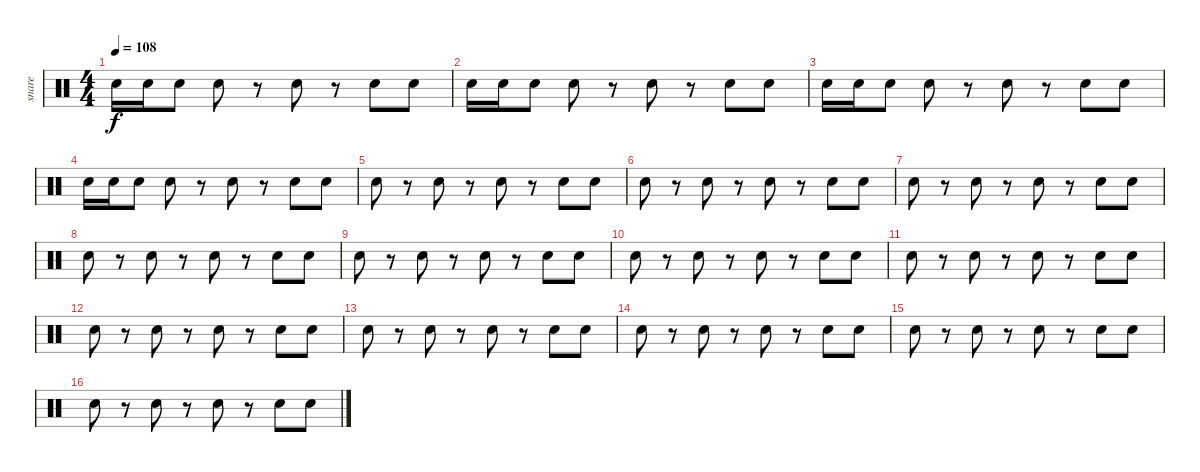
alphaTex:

\track ("snare               " "snare     ") {instrument percussion}
\staff {score}
\articulation defaults
\ts (4 4)
\tempo 108
\clef neutral
\ks c "Snare (hit) 2".16{dy f} "Snare (hit) 2".16 "Snare (hit) 2".8 "Snare (hit) 2".8
r.8 "Snare (hit) 2".8 r.8 "Snare (hit) 2".8 "Snare (hit) 2".8 |
"Snare (hit) 2".16 "Snare (hit) 2".16 "Snare (hit) 2".8 "Snare (hit) 2".8 r.8 "Snare (hit) 2".8 r.8 "Snare (hit) 2".8 "Snare (hit) 2".8 |
"Snare (hit) 2".16 "Snare (hit) 2".16 "Snare (hit) 2".8 "Snare (hit) 2".8 r.8 "Snare (hit) 2".8 r.8 "Snare (hit) 2".8 "Snare (hit) 2".8 |
"Snare (hit) 2".16 "Snare (hit) 2".16 "Snare (hit) 2".8 "Snare (hit) 2".8 r.8 "Snare (hit) 2".8 r.8 "Snare (hit) 2".8 "Snare (hit) 2".8 |
"Snare (hit) 2".8 r.8 "Snare (hit) 2".8 r.8 "Snare (hit) 2".8 r.8 "Snare (hit) 2".8 "Snare (hit) 2".8 |
"Snare (hit) 2".8 r.8 "Snare (hit) 2".8 r.8 "Snare (hit) 2".8 r.8 "Snare (hit) 2".8 "Snare (hit) 2".8 |
"Snare (hit) 2".8 r.8 "Snare (hit) 2".8 r.8 "Snare (hit) 2".8 r.8 "Snare (hit) 2".8 "Snare (hit) 2".8 |
"Snare (hit) 2".8 r.8 "Snare (hit) 2".8 r.8 "Snare (hit) 2".8 r.8 "Snare (hit) 2".8 "Snare (hit) 2".8 |
"Snare (hit) 2".8 r.8 "Snare (hit) 2".8 r.8 "Snare (hit) 2".8 r.8 "Snare (hit) 2".8 "Snare (hit) 2".8 |
"Snare (hit) 2".8 r.8 "Snare (hit) 2".8 r.8 "Snare (hit) 2".8 r.8 "Snare (hit) 2".8 "Snare (hit) 2".8 |
"Snare (hit) 2".8 r.8 "Snare (hit) 2".8 r.8 "Snare (hit) 2".8 r.8 "Snare (hit) 2".8 "Snare (hit) 2".8 |
"Snare (hit) 2".8 r.8 "Snare (hit) 2".8 r.8 "Snare (hit) 2".8 r.8 "Snare (hit) 2".8 "Snare (hit) 2".8 |
"Snare (hit) 2".8 r.8 "Snare (hit) 2".8 r.8 "Snare (hit) 2".8 r.8 "Snare (hit) 2".8 "Snare (hit) 2".8 |
"Snare (hit) 2".8 r.8 "Snare (hit) 2".8 r.8 "Snare (hit) 2".8 r.8 "Snare (hit) 2".8 "Snare (hit) 2".8 |
"Snare (hit) 2".8 r.8 "Snare (hit) 2".8 r.8 "Snare (hit) 2".8 r.8 "Snare (hit) 2".8 "Snare (hit) 2".8 |
"Snare (hit) 2".8 r.8 "Snare (hit) 2".8 r.8 "Snare (hit) 2".8 r.8 "Snare (hit) 2".8 "Snare (hit) 2".8
